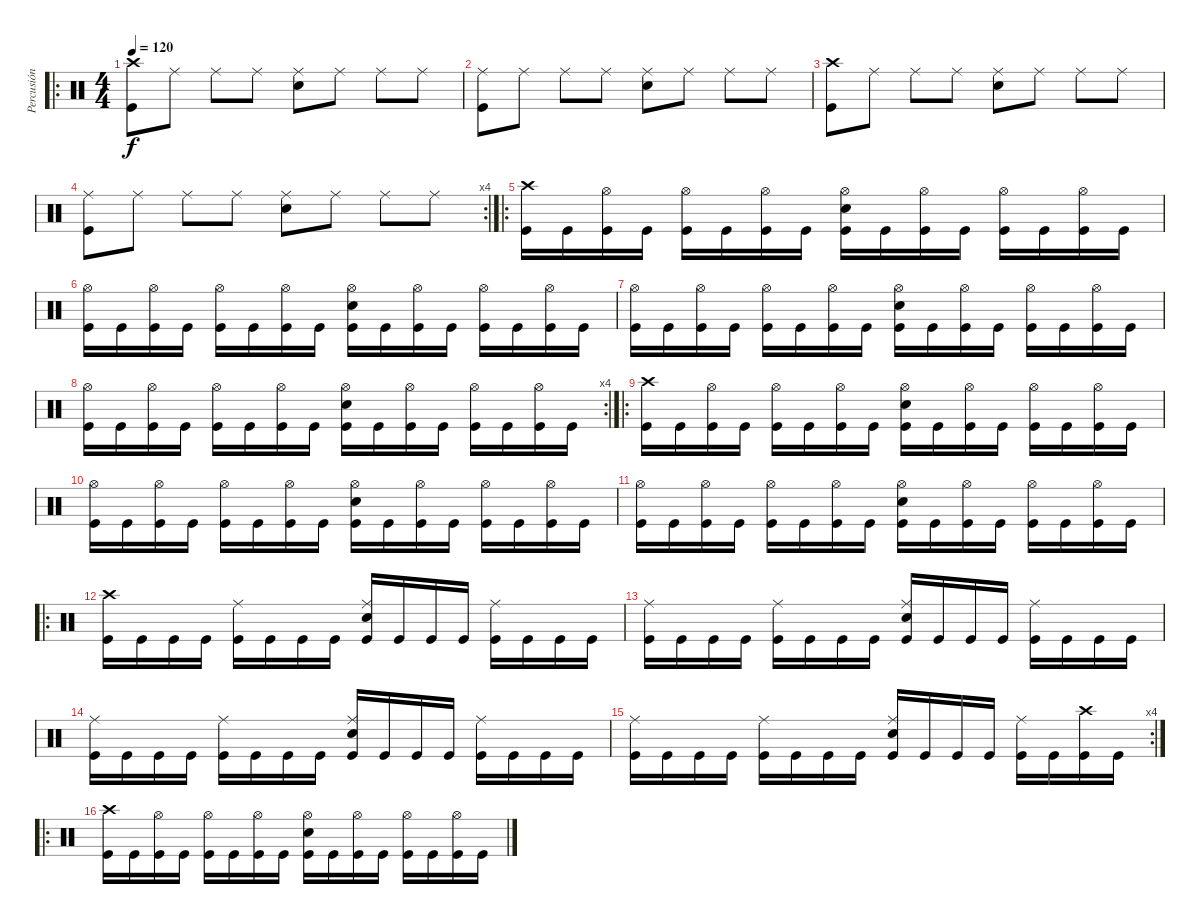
\track ("Percusión" "Percusión") {instrument percussion}
\staff {score}
\articulation defaults
\ro
\ts (4 4)
\tempo 120
\clef neutral
\ks c
("Kick (hit)" "Crash high (hit)").8{dy f} "Ride (middle)".8 "Ride (middle)".8 "Ride (middle)".8 ("Electric Snare (hit)" "Ride (middle)").8 "Ride (middle)".8 "Ride (middle)".8 "Ride (middle)".8 |
("Ride (middle)" "Kick (hit)").8 "Ride (middle)".8 "Ride (middle)".8 "Ride (middle)".8 ("Electric Snare (hit)" "Ride (middle)").8 "Ride (middle)".8 "Ride (middle)".8 "Ride (middle)".8 |
("Crash high (hit)" "Kick (hit)").8 "Ride (middle)".8 "Ride (middle)".8 "Ride (middle)".8 ("Electric Snare (hit)" "Ride (middle)").8 "Ride (middle)".8 "Ride (middle)".8 "Ride (middle)".8 |
\rc 4
("Ride (middle)" "Kick (hit)").8 "Ride (middle)".8 "Ride (middle)".8 "Ride (middle)".8 ("Electric Snare (hit)" "Ride (middle)").8 "Ride (middle)".8 "Ride (middle)".8 "Ride (middle)".8 |
\ro
("Crash high (hit)" "Kick (hit)").16 "Kick (hit)".16 ("Kick (hit)" "Hi-Hat (open)").16 "Kick (hit)".16 ("Kick (hit)" "Hi-Hat (open)").16 "Kick (hit)".16 ("Kick (hit)" "Hi-Hat (open)").16 "Kick (hit)".16 ("Electric Snare (hit)" "Kick (hit)" "Hi-Hat (open)").16 "Kick (hit)".16 ("Kick (hit)" "Hi-Hat (open)").16 "Kick (hit)".16 ("Kick (hit)" "Hi-Hat (open)").16 "Kick (hit)".16 ("Kick (hit)" "Hi-Hat (open)").16 "Kick (hit)".16 |
("Hi-Hat (open)" "Kick (hit)").16 "Kick (hit)".16 ("Kick (hit)" "Hi-Hat (open)").16 "Kick (hit)".16 ("Kick (hit)" "Hi-Hat (open)").16 "Kick (hit)".16 ("Kick (hit)" "Hi-Hat (open)").16 "Kick (hit)".16 ("Electric Snare (hit)" "Kick (hit)" "Hi-Hat (open)").16 "Kick (hit)".16 ("Kick (hit)" "Hi-Hat (open)").16 "Kick (hit)".16 ("Kick (hit)" "Hi-Hat (open)").16 "Kick (hit)".16 ("Kick (hit)" "Hi-Hat (open)").16 "Kick (hit)".16 |
("Hi-Hat (open)" "Kick (hit)").16 "Kick (hit)".16 ("Kick (hit)" "Hi-Hat (open)").16 "Kick (hit)".16 ("Kick (hit)" "Hi-Hat (open)").16 "Kick (hit)".16 ("Kick (hit)" "Hi-Hat (open)").16 "Kick (hit)".16 ("Electric Snare (hit)" "Kick (hit)" "Hi-Hat (open)").16 "Kick (hit)".16 ("Kick (hit)" "Hi-Hat (open)").16 "Kick (hit)".16 ("Kick (hit)" "Hi-Hat (open)").16 "Kick (hit)".16 ("Kick (hit)" "Hi-Hat (open)").16 "Kick (hit)".16 |
\rc 4
("Hi-Hat (open)" "Kick (hit)").16 "Kick (hit)".16 ("Kick (hit)" "Hi-Hat (open)").16 "Kick (hit)".16 ("Kick (hit)" "Hi-Hat (open)").16 "Kick (hit)".16 ("Kick (hit)" "Hi-Hat (open)").16 "Kick (hit)".16 ("Electric Snare (hit)" "Kick (hit)" "Hi-Hat (open)").16 "Kick (hit)".16 ("Kick (hit)" "Hi-Hat (open)").16 "Kick (hit)".16 ("Kick (hit)" "Hi-Hat (open)").16 "Kick (hit)".16 ("Kick (hit)" "Hi-Hat (open)").16 "Kick (hit)".16 |
\ro
("Crash high (hit)" "Kick (hit)").16 "Kick (hit)".16 ("Kick (hit)" "Hi-Hat (open)").16 "Kick (hit)".16 ("Kick (hit)" "Hi-Hat (open)").16 "Kick (hit)".16 ("Kick (hit)" "Hi-Hat (open)").16 "Kick (hit)".16 ("Electric Snare (hit)" "Kick (hit)" "Hi-Hat (open)").16 "Kick (hit)".16 ("Kick (hit)" "Hi-Hat (open)").16 "Kick (hit)".16 ("Kick (hit)" "Hi-Hat (open)").16 "Kick (hit)".16 ("Kick (hit)" "Hi-Hat (open)").16 "Kick (hit)".16 |
("Hi-Hat (open)" "Kick (hit)").16 "Kick (hit)".16 ("Kick (hit)" "Hi-Hat (open)").16 "Kick (hit)".16 ("Kick (hit)" "Hi-Hat (open)").16 "Kick (hit)".16 ("Kick (hit)" "Hi-Hat (open)").16 "Kick (hit)".16 ("Electric Snare (hit)" "Kick (hit)" "Hi-Hat (open)").16 "Kick (hit)".16 ("Kick (hit)" "Hi-Hat (open)").16 "Kick (hit)".16 ("Kick (hit)" "Hi-Hat (open)").16 "Kick (hit)".16 ("Kick (hit)" "Hi-Hat (open)").16 "Kick (hit)".16 |
("Hi-Hat (open)" "Kick (hit)").16 "Kick (hit)".16 ("Kick (hit)" "Hi-Hat (open)").16 "Kick (hit)".16 ("Kick (hit)" "Hi-Hat (open)").16 "Kick (hit)".16 ("Kick (hit)" "Hi-Hat (open)").16 "Kick (hit)".16 ("Electric Snare (hit)" "Kick (hit)" "Hi-Hat (open)").16 "Kick (hit)".16 ("Kick (hit)" "Hi-Hat (open)").16 "Kick (hit)".16 ("Kick (hit)" "Hi-Hat (open)").16 "Kick (hit)".16 ("Kick (hit)" "Hi-Hat (open)").16 "Kick (hit)".16 |
\ro
("Crash high (hit)" "Kick (hit)").16 "Kick (hit)".16 "Kick (hit)".16 "Kick (hit)".16 ("Kick (hit)" "Ride (middle)").16 "Kick (hit)".16 "Kick (hit)".16 "Kick (hit)".16 ("Electric Snare (hit)" "Kick (hit)" "Ride (middle)").16 "Kick (hit)".16 "Kick (hit)".16 "Kick (hit)".16 ("Kick (hit)" "Ride (middle)").16 "Kick (hit)".16 "Kick (hit)".16 "Kick (hit)".16 |
("Ride (middle)" "Kick (hit)").16 "Kick (hit)".16 "Kick (hit)".16 "Kick (hit)".16 ("Kick (hit)" "Ride (middle)").16 "Kick (hit)".16 "Kick (hit)".16 "Kick (hit)".16 ("Electric Snare (hit)" "Kick (hit)" "Ride (middle)").16 "Kick (hit)".16 "Kick (hit)".16 "Kick (hit)".16 ("Kick (hit)" "Ride (middle)").16 "Kick (hit)".16 "Kick (hit)".16 "Kick (hit)".16 |
("Ride (middle)" "Kick (hit)").16 "Kick (hit)".16 "Kick (hit)".16 "Kick (hit)".16 ("Kick (hit)" "Ride (middle)").16 "Kick (hit)".16 "Kick (hit)".16 "Kick (hit)".16 ("Electric Snare (hit)" "Kick (hit)" "Ride (middle)").16 "Kick (hit)".16 "Kick (hit)".16 "Kick (hit)".16 ("Kick (hit)" "Ride (middle)").16 "Kick (hit)".16 "Kick (hit)".16 "Kick (hit)".16 |
\rc 4
("Ride (middle)" "Kick (hit)").16 "Kick (hit)".16 "Kick (hit)".16 "Kick (hit)".16 ("Kick (hit)" "Ride (middle)").16 "Kick (hit)".16 "Kick (hit)".16 "Kick (hit)".16 ("Electric Snare (hit)" "Kick (hit)" "Ride (middle)").16 "Kick (hit)".16 "Kick (hit)".16 "Kick (hit)".16 ("Kick (hit)" "Ride (middle)").16 "Kick (hit)".16 ("Kick (hit)" "Crash high (hit)").16 "Kick (hit)".16 |
\ro
("Crash high (hit)" "Kick (hit)").16 "Kick (hit)".16 ("Kick (hit)" "Hi-Hat (open)").16 "Kick (hit)".16 ("Kick (hit)" "Hi-Hat (open)").16 "Kick (hit)".16 ("Kick (hit)" "Hi-Hat (open)").16 "Kick (hit)".16 ("Electric Snare (hit)" "Kick (hit)" "Hi-Hat (open)").16 "Kick (hit)".16 ("Kick (hit)" "Hi-Hat (open)").16 "Kick (hit)".16 ("Kick (hit)" "Hi-Hat (open)").16 "Kick (hit)".16 ("Kick (hit)" "Hi-Hat (open)").16 "Kick (hit)".16
